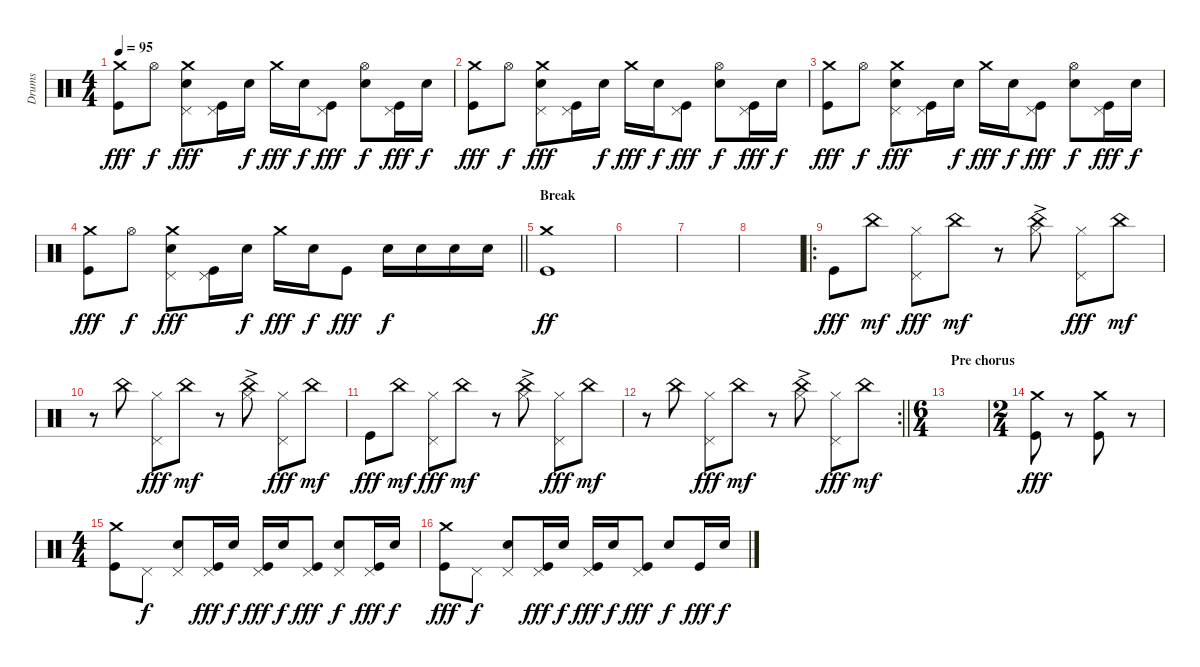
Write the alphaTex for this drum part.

\track ("Drums" "Drums") {instrument percussion}
\staff {score}
\articulation defaults
\ts (4 4)
\tempo 95
\clef neutral
\ks c
("Crash medium (hit)" "Kick (hit)").8{dy fff} "Hi-Hat (open)".8{dy f} ("Crash medium (hit)" "Pedal Hi-Hat (hit)" "Snare (hit) 2").8{dy fff} ("Pedal Hi-Hat (hit)" "Kick (hit)").16 "Snare (hit) 2".16{dy f} "Crash medium (hit)".16{dy fff} "Snare (hit) 2".16{dy f} ("Pedal Hi-Hat (hit)" "Kick (hit)").8{dy fff} ("Hi-Hat (open)" "Snare (hit) 2").8{dy f} ("Pedal Hi-Hat (hit)" "Kick (hit)").16{dy fff} "Snare (hit) 2".16{dy f} |
("Crash medium (hit)" "Kick (hit)").8{dy fff} "Hi-Hat (open)".8{dy f} ("Crash medium (hit)" "Pedal Hi-Hat (hit)" "Snare (hit) 2").8{dy fff} ("Pedal Hi-Hat (hit)" "Kick (hit)").16 "Snare (hit) 2".16{dy f} "Crash medium (hit)".16{dy fff} "Snare (hit) 2".16{dy f} ("Pedal Hi-Hat (hit)" "Kick (hit)").8{dy fff} ("Hi-Hat (open)" "Snare (hit) 2").8{dy f} ("Pedal Hi-Hat (hit)" "Kick (hit)").16{dy fff} "Snare (hit) 2".16{dy f} |
("Crash medium (hit)" "Kick (hit)").8{dy fff} "Hi-Hat (open)".8{dy f} ("Crash medium (hit)" "Pedal Hi-Hat (hit)" "Snare (hit) 2").8{dy fff} ("Pedal Hi-Hat (hit)" "Kick (hit)").16 "Snare (hit) 2".16{dy f} "Crash medium (hit)".16{dy fff} "Snare (hit) 2".16{dy f} ("Pedal Hi-Hat (hit)" "Kick (hit)").8{dy fff} ("Hi-Hat (open)" "Snare (hit) 2").8{dy f} ("Pedal Hi-Hat (hit)" "Kick (hit)").16{dy fff} "Snare (hit) 2".16{dy f} |
\barLineRight lightlight
("Crash medium (hit)" "Kick (hit)").8{dy fff} "Hi-Hat (open)".8{dy f} ("Crash medium (hit)" "Pedal Hi-Hat (hit)" "Snare (hit) 2").8{dy fff} ("Pedal Hi-Hat (hit)" "Kick (hit)").16 "Snare (hit) 2".16{dy f} "Crash medium (hit)".16{dy fff} "Snare (hit) 2".16{dy f} "Kick (hit)".8{dy fff} "Snare (hit) 2".16{dy f} "Snare (hit) 2".16 "Snare (hit) 2".16 "Snare (hit) 2".16 |
\section ("" "Break")
("Crash medium (hit)" "Kick (hit)").1{dy ff} |
|
|
|
\ro "Kick (hit)".8{dy fff} "China (hit)".8{dy mf}
("Pedal Hi-Hat (hit)" "Hi-Hat (closed)").8{dy fff} "China (hit)".8{dy mf} r.8 ("Hi-Hat (closed)"{ac} "China (hit)").8 ("Pedal Hi-Hat (hit)" "Hi-Hat (closed)").8{dy fff} "China (hit)".8{dy mf} |
r.8 "China (hit)".8 ("Pedal Hi-Hat (hit)" "Hi-Hat (closed)").8{dy fff} "China (hit)".8{dy mf} r.8 ("Hi-Hat (closed)"{ac} "China (hit)").8 ("Pedal Hi-Hat (hit)" "Hi-Hat (closed)").8{dy fff} "China (hit)".8{dy mf} |
"Kick (hit)".8{dy fff} "China (hit)".8{dy mf} ("Pedal Hi-Hat (hit)" "Hi-Hat (closed)").8{dy fff} "China (hit)".8{dy mf} r.8 ("Hi-Hat (closed)"{ac} "China (hit)").8 ("Pedal Hi-Hat (hit)" "Hi-Hat (closed)").8{dy fff} "China (hit)".8{dy mf} |
\rc 2
\barLineRight lightlight
r.8 "China (hit)".8 ("Pedal Hi-Hat (hit)" "Hi-Hat (closed)").8{dy fff} "China (hit)".8{dy mf} r.8 ("Hi-Hat (closed)"{ac} "China (hit)").8 ("Pedal Hi-Hat (hit)" "Hi-Hat (closed)").8{dy fff} "China (hit)".8{dy mf} |
\ts (6 4)
\section ("" "Pre chorus")
|
\ts (2 4)
("Crash medium (hit)" "Kick (hit)").8{dy fff} r.8 ("Crash medium (hit)" "Kick (hit)").8 r.8 |
\ts (4 4)
("Crash medium (hit)" "Kick (hit)").8 "Pedal Hi-Hat (hit)".8{dy f} ("Pedal Hi-Hat (hit)" "Snare (hit) 2").8 ("Pedal Hi-Hat (hit)" "Kick (hit)").16{dy fff} "Snare (hit) 2".16{dy f} ("Pedal Hi-Hat (hit)" "Kick (hit)").16{dy fff} "Snare (hit) 2".16{dy f} ("Pedal Hi-Hat (hit)" "Kick (hit)").8{dy fff} ("Pedal Hi-Hat (hit)" "Snare (hit) 2").8{dy f} ("Pedal Hi-Hat (hit)" "Kick (hit)").16{dy fff} "Snare (hit) 2".16{dy f} |
("Crash medium (hit)" "Kick (hit)").8{dy fff} "Pedal Hi-Hat (hit)".8{dy f} ("Pedal Hi-Hat (hit)" "Snare (hit) 2").8 ("Pedal Hi-Hat (hit)" "Kick (hit)").16{dy fff} "Snare (hit) 2".16{dy f} ("Pedal Hi-Hat (hit)" "Kick (hit)").16{dy fff} "Snare (hit) 2".16{dy f} ("Pedal Hi-Hat (hit)" "Kick (hit)").8{dy fff} "Snare (hit) 2".8{dy f} "Kick (hit)".16{dy fff} "Snare (hit) 2".16{dy f}
